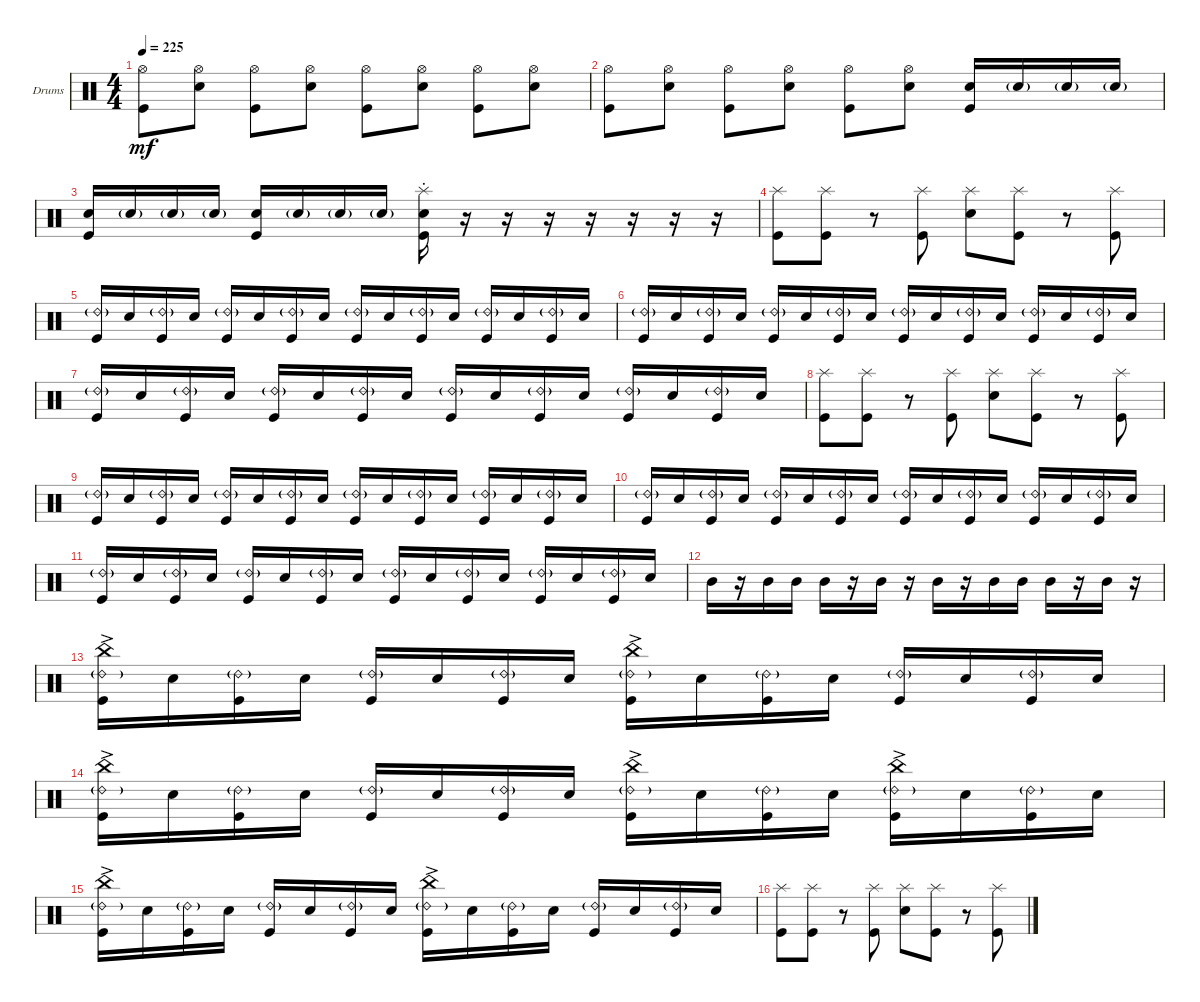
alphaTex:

\bracketExtendMode groupsimilarinstruments
\firstSystemTrackNameOrientation horizontal
\otherSystemsTrackNameOrientation horizontal
\track ("Drumkit" "Drums") {instrument percussion}
\staff {score}
\articulation defaults
\ts (4 4)
\tempo 225
\clef neutral
\ks c
("Kick (hit)" "Hi-Hat (open)").8{dy mf} ("Snare (hit) 2" "Hi-Hat (open)").8 ("Kick (hit)" "Hi-Hat (open)").8 ("Snare (hit) 2" "Hi-Hat (open)").8 ("Kick (hit)" "Hi-Hat (open)").8 ("Snare (hit) 2" "Hi-Hat (open)").8 ("Kick (hit)" "Hi-Hat (open)").8 ("Snare (hit) 2" "Hi-Hat (open)").8 |
("Kick (hit)" "Hi-Hat (open)").8 ("Snare (hit) 2" "Hi-Hat (open)").8 ("Kick (hit)" "Hi-Hat (open)").8 ("Snare (hit) 2" "Hi-Hat (open)").8 ("Kick (hit)" "Hi-Hat (open)").8 ("Snare (hit) 2" "Hi-Hat (open)").8 ("Snare (hit) 2" "Kick (hit)").16 "Snare (hit) 2"{g}.16 "Snare (hit) 2"{g}.16 "Snare (hit) 2"{g}.16 |
("Snare (hit) 2" "Kick (hit)").16 "Snare (hit) 2"{g}.16 "Snare (hit) 2"{g}.16 "Snare (hit) 2"{g}.16 ("Snare (hit) 2" "Kick (hit)").16 "Snare (hit) 2"{g}.16 "Snare (hit) 2"{g}.16 "Snare (hit) 2"{g}.16 ("Snare (hit) 2" "Kick (hit)" "Splash (hit)"{st}).16 r.16 r.16 r.16 r.16 r.16 r.16 r.16 |
("Kick (hit)" "Splash (hit)").8 ("Kick (hit)" "Splash (hit)").8 r.8 ("Kick (hit)" "Splash (hit)").8 ("Snare (hit) 2" "Splash (hit)").8 ("Kick (hit)" "Splash (hit)").8 r.8 ("Kick (hit)" "Splash (hit)").8 |
("Kick (hit)" "Ride (bell) 2"{g}).16 "Snare (hit) 2".16 ("Kick (hit)" "Ride (bell) 2"{g}).16 "Snare (hit) 2".16 ("Kick (hit)" "Ride (bell) 2"{g}).16 "Snare (hit) 2".16 ("Kick (hit)" "Ride (bell) 2"{g}).16 "Snare (hit) 2".16 ("Kick (hit)" "Ride (bell) 2"{g}).16 "Snare (hit) 2".16 ("Kick (hit)" "Ride (bell) 2"{g}).16 "Snare (hit) 2".16 ("Kick (hit)" "Ride (bell) 2"{g}).16 "Snare (hit) 2".16 ("Kick (hit)" "Ride (bell) 2"{g}).16 "Snare (hit) 2".16 |
("Kick (hit)" "Ride (bell) 2"{g}).16 "Snare (hit) 2".16 ("Kick (hit)" "Ride (bell) 2"{g}).16 "Snare (hit) 2".16 ("Kick (hit)" "Ride (bell) 2"{g}).16 "Snare (hit) 2".16 ("Kick (hit)" "Ride (bell) 2"{g}).16 "Snare (hit) 2".16 ("Kick (hit)" "Ride (bell) 2"{g}).16 "Snare (hit) 2".16 ("Kick (hit)" "Ride (bell) 2"{g}).16 "Snare (hit) 2".16 ("Kick (hit)" "Ride (bell) 2"{g}).16 "Snare (hit) 2".16 ("Kick (hit)" "Ride (bell) 2"{g}).16 "Snare (hit) 2".16 |
("Kick (hit)" "Ride (bell) 2"{g}).16 "Snare (hit) 2".16 ("Kick (hit)" "Ride (bell) 2"{g}).16 "Snare (hit) 2".16 ("Kick (hit)" "Ride (bell) 2"{g}).16 "Snare (hit) 2".16 ("Kick (hit)" "Ride (bell) 2"{g}).16 "Snare (hit) 2".16 ("Kick (hit)" "Ride (bell) 2"{g}).16 "Snare (hit) 2".16 ("Kick (hit)" "Ride (bell) 2"{g}).16 "Snare (hit) 2".16 ("Kick (hit)" "Ride (bell) 2"{g}).16 "Snare (hit) 2".16 ("Kick (hit)" "Ride (bell) 2"{g}).16 "Snare (hit) 2".16 |
("Kick (hit)" "Splash (hit)").8 ("Kick (hit)" "Splash (hit)").8 r.8 ("Kick (hit)" "Splash (hit)").8 ("Snare (hit) 2" "Splash (hit)").8 ("Kick (hit)" "Splash (hit)").8 r.8 ("Kick (hit)" "Splash (hit)").8 |
("Kick (hit)" "Ride (bell) 2"{g}).16 "Snare (hit) 2".16 ("Kick (hit)" "Ride (bell) 2"{g}).16 "Snare (hit) 2".16 ("Kick (hit)" "Ride (bell) 2"{g}).16 "Snare (hit) 2".16 ("Kick (hit)" "Ride (bell) 2"{g}).16 "Snare (hit) 2".16 ("Kick (hit)" "Ride (bell) 2"{g}).16 "Snare (hit) 2".16 ("Kick (hit)" "Ride (bell) 2"{g}).16 "Snare (hit) 2".16 ("Kick (hit)" "Ride (bell) 2"{g}).16 "Snare (hit) 2".16 ("Kick (hit)" "Ride (bell) 2"{g}).16 "Snare (hit) 2".16 |
("Kick (hit)" "Ride (bell) 2"{g}).16 "Snare (hit) 2".16 ("Kick (hit)" "Ride (bell) 2"{g}).16 "Snare (hit) 2".16 ("Kick (hit)" "Ride (bell) 2"{g}).16 "Snare (hit) 2".16 ("Kick (hit)" "Ride (bell) 2"{g}).16 "Snare (hit) 2".16 ("Kick (hit)" "Ride (bell) 2"{g}).16 "Snare (hit) 2".16 ("Kick (hit)" "Ride (bell) 2"{g}).16 "Snare (hit) 2".16 ("Kick (hit)" "Ride (bell) 2"{g}).16 "Snare (hit) 2".16 ("Kick (hit)" "Ride (bell) 2"{g}).16 "Snare (hit) 2".16 |
("Kick (hit)" "Ride (bell) 2"{g}).16 "Snare (hit) 2".16 ("Kick (hit)" "Ride (bell) 2"{g}).16 "Snare (hit) 2".16 ("Kick (hit)" "Ride (bell) 2"{g}).16 "Snare (hit) 2".16 ("Kick (hit)" "Ride (bell) 2"{g}).16 "Snare (hit) 2".16 ("Kick (hit)" "Ride (bell) 2"{g}).16 "Snare (hit) 2".16 ("Kick (hit)" "Ride (bell) 2"{g}).16 "Snare (hit) 2".16 ("Kick (hit)" "Ride (bell) 2"{g}).16 "Snare (hit) 2".16 ("Kick (hit)" "Ride (bell) 2"{g}).16 "Snare (hit) 2".16 |
"Mid Tom (hit)".16 r.16 "Mid Tom (hit)".16 "Mid Tom (hit)".16 "Mid Tom (hit)".16 r.16 "Mid Tom (hit)".16 r.16 "Mid Tom (hit)".16 r.16 "Mid Tom (hit)".16 "Mid Tom (hit)".16 "Mid Tom (hit)".16 r.16 "Mid Tom (hit)".16 r.16 |
("Kick (hit)" "Ride (bell) 2"{g} "China (hit)"{ac}).16 "Snare (hit) 2".16 ("Kick (hit)" "Ride (bell) 2"{g}).16 "Snare (hit) 2".16 ("Kick (hit)" "Ride (bell) 2"{g}).16 "Snare (hit) 2".16 ("Kick (hit)" "Ride (bell) 2"{g}).16 "Snare (hit) 2".16 ("Kick (hit)" "Ride (bell) 2"{g} "China (hit)"{ac}).16 "Snare (hit) 2".16 ("Kick (hit)" "Ride (bell) 2"{g}).16 "Snare (hit) 2".16 ("Kick (hit)" "Ride (bell) 2"{g}).16 "Snare (hit) 2".16 ("Kick (hit)" "Ride (bell) 2"{g}).16 "Snare (hit) 2".16 |
("Kick (hit)" "Ride (bell) 2"{g} "China (hit)"{ac}).16 "Snare (hit) 2".16 ("Kick (hit)" "Ride (bell) 2"{g}).16 "Snare (hit) 2".16 ("Kick (hit)" "Ride (bell) 2"{g}).16 "Snare (hit) 2".16 ("Kick (hit)" "Ride (bell) 2"{g}).16 "Snare (hit) 2".16 ("Kick (hit)" "Ride (bell) 2"{g} "China (hit)"{ac}).16 "Snare (hit) 2".16 ("Kick (hit)" "Ride (bell) 2"{g}).16 "Snare (hit) 2".16 ("Kick (hit)" "Ride (bell) 2"{g} "China (hit)"{ac}).16 "Snare (hit) 2".16 ("Kick (hit)" "Ride (bell) 2"{g}).16 "Snare (hit) 2".16 |
("Kick (hit)" "Ride (bell) 2"{g} "China (hit)"{ac}).16 "Snare (hit) 2".16 ("Kick (hit)" "Ride (bell) 2"{g}).16 "Snare (hit) 2".16 ("Kick (hit)" "Ride (bell) 2"{g}).16 "Snare (hit) 2".16 ("Kick (hit)" "Ride (bell) 2"{g}).16 "Snare (hit) 2".16 ("Kick (hit)" "Ride (bell) 2"{g} "China (hit)"{ac}).16 "Snare (hit) 2".16 ("Kick (hit)" "Ride (bell) 2"{g}).16 "Snare (hit) 2".16 ("Kick (hit)" "Ride (bell) 2"{g}).16 "Snare (hit) 2".16 ("Kick (hit)" "Ride (bell) 2"{g}).16 "Snare (hit) 2".16 |
("Kick (hit)" "Splash (hit)").8 ("Kick (hit)" "Splash (hit)").8 r.8 ("Kick (hit)" "Splash (hit)").8 ("Snare (hit) 2" "Splash (hit)").8 ("Kick (hit)" "Splash (hit)").8 r.8 ("Kick (hit)" "Splash (hit)").8
